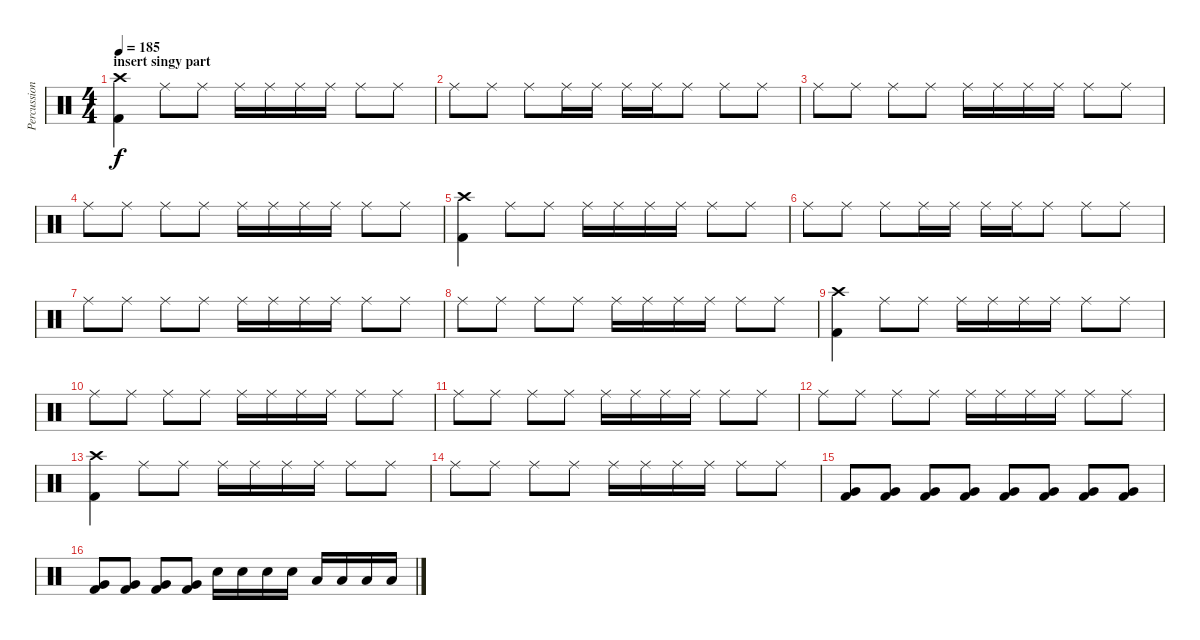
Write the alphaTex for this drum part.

\track ("Percussion" "Percussion") {instrument percussion}
\staff {score}
\articulation defaults
\ts (4 4)
\section ("" "insert singy part")
\tempo 185
\clef neutral
\ks c
("Crash high (hit)" "Kick (hit) 2").4{dy f} "Ride (middle)".8 "Ride (middle)".8 "Ride (middle)".16 "Ride (middle)".16 "Ride (middle)".16 "Ride (middle)".16 "Ride (middle)".8 "Ride (middle)".8 |
"Ride (middle)".8 "Ride (middle)".8 "Ride (middle)".8 "Ride (middle)".16 "Ride (middle)".16 "Ride (middle)".16 "Ride (middle)".16 "Ride (middle)".8 "Ride (middle)".8 "Ride (middle)".8 |
"Ride (middle)".8 "Ride (middle)".8 "Ride (middle)".8 "Ride (middle)".8 "Ride (middle)".16 "Ride (middle)".16 "Ride (middle)".16 "Ride (middle)".16 "Ride (middle)".8 "Ride (middle)".8 |
"Ride (middle)".8 "Ride (middle)".8 "Ride (middle)".8 "Ride (middle)".8 "Ride (middle)".16 "Ride (middle)".16 "Ride (middle)".16 "Ride (middle)".16 "Ride (middle)".8 "Ride (middle)".8 |
("Crash high (hit)" "Kick (hit) 2").4 "Ride (middle)".8 "Ride (middle)".8 "Ride (middle)".16 "Ride (middle)".16 "Ride (middle)".16 "Ride (middle)".16 "Ride (middle)".8 "Ride (middle)".8 |
"Ride (middle)".8 "Ride (middle)".8 "Ride (middle)".8 "Ride (middle)".16 "Ride (middle)".16 "Ride (middle)".16 "Ride (middle)".16 "Ride (middle)".8 "Ride (middle)".8 "Ride (middle)".8 |
"Ride (middle)".8 "Ride (middle)".8 "Ride (middle)".8 "Ride (middle)".8 "Ride (middle)".16 "Ride (middle)".16 "Ride (middle)".16 "Ride (middle)".16 "Ride (middle)".8 "Ride (middle)".8 |
"Ride (middle)".8 "Ride (middle)".8 "Ride (middle)".8 "Ride (middle)".8 "Ride (middle)".16 "Ride (middle)".16 "Ride (middle)".16 "Ride (middle)".16 "Ride (middle)".8 "Ride (middle)".8 |
("Crash high (hit)" "Kick (hit) 2").4 "Ride (middle)".8 "Ride (middle)".8 "Ride (middle)".16 "Ride (middle)".16 "Ride (middle)".16 "Ride (middle)".16 "Ride (middle)".8 "Ride (middle)".8 |
"Ride (middle)".8 "Ride (middle)".8 "Ride (middle)".8 "Ride (middle)".8 "Ride (middle)".16 "Ride (middle)".16 "Ride (middle)".16 "Ride (middle)".16 "Ride (middle)".8 "Ride (middle)".8 |
"Ride (middle)".8 "Ride (middle)".8 "Ride (middle)".8 "Ride (middle)".8 "Ride (middle)".16 "Ride (middle)".16 "Ride (middle)".16 "Ride (middle)".16 "Ride (middle)".8 "Ride (middle)".8 |
"Ride (middle)".8 "Ride (middle)".8 "Ride (middle)".8 "Ride (middle)".8 "Ride (middle)".16 "Ride (middle)".16 "Ride (middle)".16 "Ride (middle)".16 "Ride (middle)".8 "Ride (middle)".8 |
("Crash high (hit)" "Kick (hit) 2").4 "Ride (middle)".8 "Ride (middle)".8 "Ride (middle)".16 "Ride (middle)".16 "Ride (middle)".16 "Ride (middle)".16 "Ride (middle)".8 "Ride (middle)".8 |
"Ride (middle)".8 "Ride (middle)".8 "Ride (middle)".8 "Ride (middle)".8 "Ride (middle)".16 "Ride (middle)".16 "Ride (middle)".16 "Ride (middle)".16 "Ride (middle)".8 "Ride (middle)".8 |
("Very Low Tom (hit)" "Kick (hit) 2").8 ("Very Low Tom (hit)" "Kick (hit) 2").8 ("Very Low Tom (hit)" "Kick (hit) 2").8 ("Very Low Tom (hit)" "Kick (hit) 2").8 ("Very Low Tom (hit)" "Kick (hit) 2").8 ("Very Low Tom (hit)" "Kick (hit) 2").8 ("Very Low Tom (hit)" "Kick (hit) 2").8 ("Very Low Tom (hit)" "Kick (hit) 2").8 |
("Very Low Tom (hit)" "Kick (hit) 2").8 ("Very Low Tom (hit)" "Kick (hit) 2").8 ("Very Low Tom (hit)" "Kick (hit) 2").8 ("Very Low Tom (hit)" "Kick (hit) 2").8 "Electric Snare (hit)".16 "Electric Snare (hit)".16 "Electric Snare (hit)".16 "Electric Snare (hit)".16 "Low Tom (hit)".16 "Low Tom (hit)".16 "Low Tom (hit)".16 "Low Tom (hit)".16
